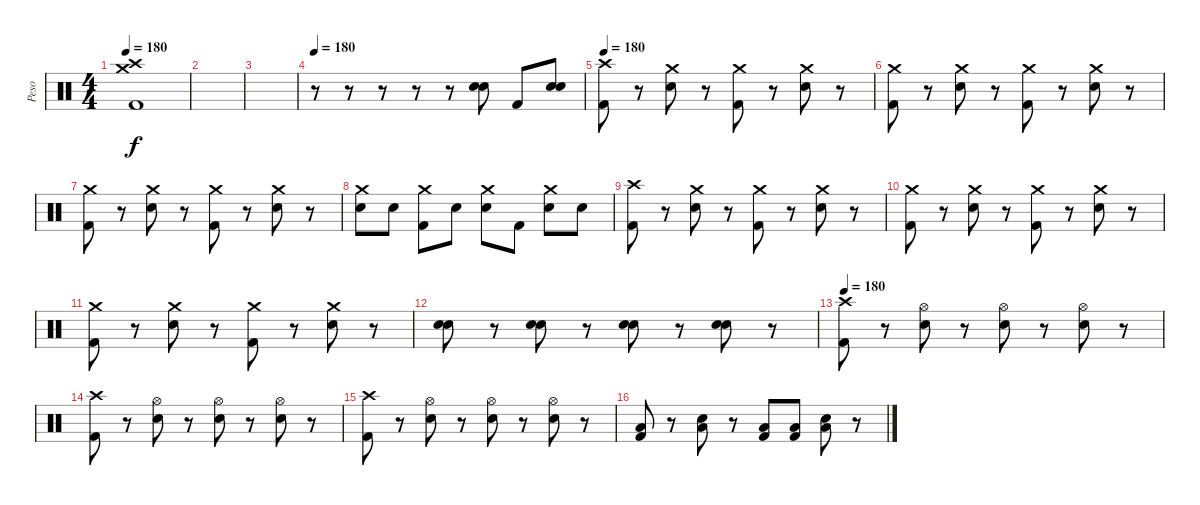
\track ("Peso" "Peso") {instrument percussion}
\staff {score}
\articulation defaults
\ts (4 4)
\tempo 180
\clef neutral
\ks c
("Crash high (hit)" "Crash medium (hit)" "Kick (hit) 2").1{dy f} |
|
|
\tempo 180
r.8 r.8 r.8 r.8 r.8 ("Snare (hit) 2" "Snare (hit) 2").8 "Kick (hit) 2".8 ("Snare (hit) 2" "Snare (hit) 2").8 |
\tempo 180
("Crash high (hit)" "Kick (hit) 2").8 r.8 ("Crash medium (hit)" "Snare (hit) 2").8 r.8 ("Crash medium (hit)" "Kick (hit) 2").8 r.8 ("Crash medium (hit)" "Snare (hit) 2").8 r.8 |
("Crash medium (hit)" "Kick (hit) 2").8 r.8 ("Crash medium (hit)" "Snare (hit) 2").8 r.8 ("Crash medium (hit)" "Kick (hit) 2").8 r.8 ("Crash medium (hit)" "Snare (hit) 2").8 r.8 |
("Crash medium (hit)" "Kick (hit) 2").8 r.8 ("Crash medium (hit)" "Snare (hit) 2").8 r.8 ("Crash medium (hit)" "Kick (hit) 2").8 r.8 ("Crash medium (hit)" "Snare (hit) 2").8 r.8 |
("Crash medium (hit)" "Snare (hit) 2").8 "Snare (hit) 2".8 ("Crash medium (hit)" "Kick (hit) 2").8 "Snare (hit) 2".8 ("Crash medium (hit)" "Snare (hit) 2").8 "Kick (hit) 2".8 ("Crash medium (hit)" "Snare (hit) 2").8 "Snare (hit) 2"{x}.8 |
("Crash high (hit)" "Kick (hit) 2").8 r.8 ("Crash medium (hit)" "Snare (hit) 2").8 r.8 ("Crash medium (hit)" "Kick (hit) 2").8 r.8 ("Crash medium (hit)" "Snare (hit) 2").8 r.8 |
("Crash medium (hit)" "Kick (hit) 2").8 r.8 ("Crash medium (hit)" "Snare (hit) 2").8 r.8 ("Crash medium (hit)" "Kick (hit) 2").8 r.8 ("Crash medium (hit)" "Snare (hit) 2").8 r.8 |
("Crash medium (hit)" "Kick (hit) 2").8 r.8 ("Crash medium (hit)" "Snare (hit) 2").8 r.8 ("Crash medium (hit)" "Kick (hit) 2").8 r.8 ("Crash medium (hit)" "Snare (hit) 2").8 r.8 |
("Snare (hit) 2" "Snare (hit) 2").8 r.8 ("Snare (hit) 2" "Snare (hit) 2").8 r.8 ("Snare (hit) 2" "Snare (hit) 2").8 r.8 ("Snare (hit) 2" "Snare (hit) 2").8 r.8 |
\tempo 180
("Crash high (hit)" "Kick (hit) 2").8 r.8 ("Hi-Hat (open)" "Snare (hit) 2").8 r.8 ("Hi-Hat (open)" "Snare (hit) 2").8 r.8 ("Hi-Hat (open)" "Snare (hit) 2").8 r.8 |
("Crash high (hit)" "Kick (hit) 2").8 r.8 ("Hi-Hat (open)" "Snare (hit) 2").8 r.8 ("Hi-Hat (open)" "Snare (hit) 2").8 r.8 ("Hi-Hat (open)" "Snare (hit) 2").8 r.8 |
("Crash high (hit)" "Kick (hit) 2").8 r.8 ("Hi-Hat (open)" "Snare (hit) 2").8 r.8 ("Hi-Hat (open)" "Snare (hit) 2").8 r.8 ("Hi-Hat (open)" "Snare (hit) 2").8 r.8 |
("Low Floor Tom (hit)" "Kick (hit) 2").8 r.8 ("Low Floor Tom (hit)" "Snare (hit) 2").8 r.8 ("Low Floor Tom (hit)" "Kick (hit) 2").8 ("Low Floor Tom (hit)" "Kick (hit) 2").8 ("Low Floor Tom (hit)" "Snare (hit) 2").8 r.8
